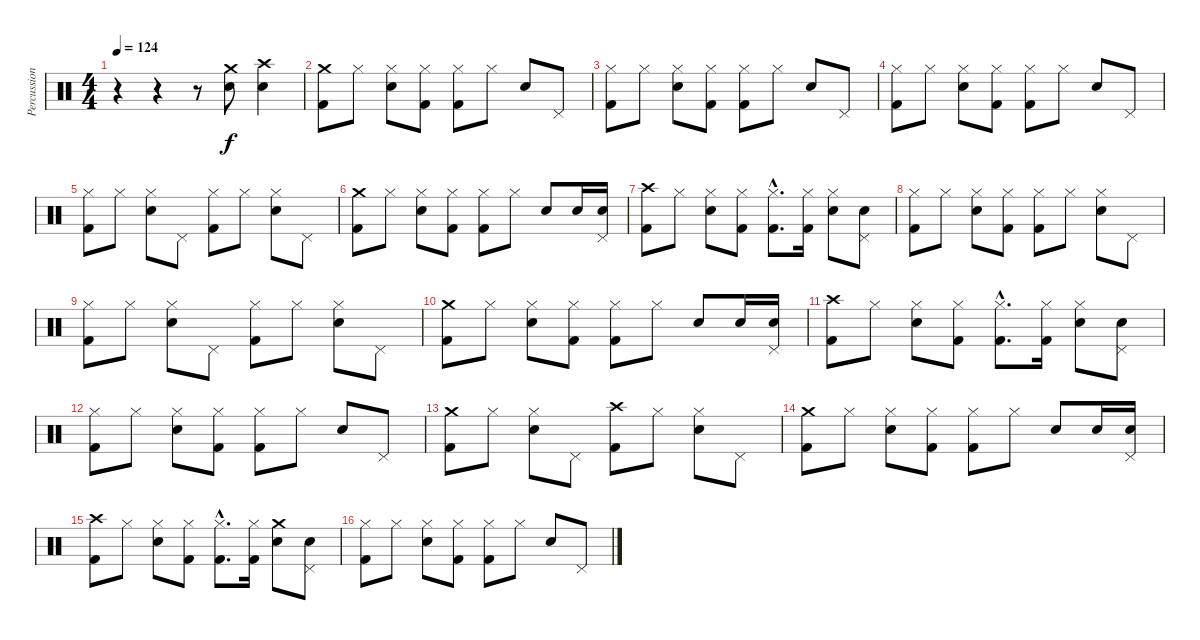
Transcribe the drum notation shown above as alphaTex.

\track ("Percussions" "Percussion") {instrument percussion}
\staff {score}
\articulation defaults
\ts (4 4)
\tempo 124
\clef neutral
\ks c
r.4{dy f} r.4 r.8 ("Crash medium (hit)" "Electric Snare (hit)").8 ("Crash high (hit)" "Electric Snare (hit)").4 |
("Crash medium (hit)" "Kick (hit) 2").8 "Hi-Hat (closed)".8 ("Hi-Hat (closed)" "Electric Snare (hit)").8 ("Hi-Hat (closed)" "Kick (hit) 2").8 ("Hi-Hat (closed)" "Kick (hit) 2").8 "Hi-Hat (closed)".8 "Electric Snare (hit)".8 "Pedal Hi-Hat (hit)".8 |
("Hi-Hat (closed)" "Kick (hit) 2").8 "Hi-Hat (closed)".8 ("Hi-Hat (closed)" "Electric Snare (hit)").8 ("Hi-Hat (closed)" "Kick (hit) 2").8 ("Hi-Hat (closed)" "Kick (hit) 2").8 "Hi-Hat (closed)".8 "Electric Snare (hit)".8 "Pedal Hi-Hat (hit)".8 |
("Hi-Hat (closed)" "Kick (hit) 2").8 "Hi-Hat (closed)".8 ("Hi-Hat (closed)" "Electric Snare (hit)").8 ("Hi-Hat (closed)" "Kick (hit) 2").8 ("Hi-Hat (closed)" "Kick (hit) 2").8 "Hi-Hat (closed)".8 "Electric Snare (hit)".8 "Pedal Hi-Hat (hit)".8 |
("Hi-Hat (closed)" "Kick (hit) 2").8 "Hi-Hat (closed)".8 ("Hi-Hat (closed)" "Electric Snare (hit)").8 "Pedal Hi-Hat (hit)".8 ("Hi-Hat (closed)" "Kick (hit) 2").8 "Hi-Hat (closed)".8 ("Hi-Hat (closed)" "Electric Snare (hit)").8 "Pedal Hi-Hat (hit)".8 |
("Crash medium (hit)" "Kick (hit) 2").8 "Hi-Hat (closed)".8 ("Hi-Hat (closed)" "Electric Snare (hit)").8 ("Hi-Hat (closed)" "Kick (hit) 2").8 ("Hi-Hat (closed)" "Kick (hit) 2").8 "Hi-Hat (closed)".8 "Electric Snare (hit)".8 "Electric Snare (hit)".16 ("Pedal Hi-Hat (hit)" "Electric Snare (hit)").16 |
("Crash high (hit)" "Kick (hit) 2").8 "Hi-Hat (closed)".8 ("Hi-Hat (closed)" "Electric Snare (hit)").8 ("Hi-Hat (closed)" "Kick (hit) 2").8 ("Hi-Hat (closed)"{hac} "Kick (hit) 2"{hac}).8{d} ("Hi-Hat (closed)" "Kick (hit) 2").16 ("Hi-Hat (closed)" "Electric Snare (hit)").8 ("Pedal Hi-Hat (hit)" "Electric Snare (hit)").8 |
("Hi-Hat (closed)" "Kick (hit) 2").8 "Hi-Hat (closed)".8 ("Hi-Hat (closed)" "Electric Snare (hit)").8 ("Hi-Hat (closed)" "Kick (hit) 2").8 ("Hi-Hat (closed)" "Kick (hit) 2").8 "Hi-Hat (closed)".8 ("Hi-Hat (closed)" "Electric Snare (hit)").8 "Pedal Hi-Hat (hit)".8 |
("Hi-Hat (closed)" "Kick (hit) 2").8 "Hi-Hat (closed)".8 ("Hi-Hat (closed)" "Electric Snare (hit)").8 "Pedal Hi-Hat (hit)".8 ("Hi-Hat (closed)" "Kick (hit) 2").8 "Hi-Hat (closed)".8 ("Hi-Hat (closed)" "Electric Snare (hit)").8 "Pedal Hi-Hat (hit)".8 |
("Crash medium (hit)" "Kick (hit) 2").8 "Hi-Hat (closed)".8 ("Hi-Hat (closed)" "Electric Snare (hit)").8 ("Hi-Hat (closed)" "Kick (hit) 2").8 ("Hi-Hat (closed)" "Kick (hit) 2").8 "Hi-Hat (closed)".8 "Electric Snare (hit)".8 "Electric Snare (hit)".16 ("Pedal Hi-Hat (hit)" "Electric Snare (hit)").16 |
("Crash high (hit)" "Kick (hit) 2").8 "Hi-Hat (closed)".8 ("Hi-Hat (closed)" "Electric Snare (hit)").8 ("Hi-Hat (closed)" "Kick (hit) 2").8 ("Hi-Hat (closed)"{hac} "Kick (hit) 2"{hac}).8{d} ("Hi-Hat (closed)" "Kick (hit) 2").16 ("Hi-Hat (closed)" "Electric Snare (hit)").8 ("Pedal Hi-Hat (hit)" "Electric Snare (hit)").8 |
("Hi-Hat (closed)" "Kick (hit) 2").8 "Hi-Hat (closed)".8 ("Hi-Hat (closed)" "Electric Snare (hit)").8 ("Hi-Hat (closed)" "Kick (hit) 2").8 ("Hi-Hat (closed)" "Kick (hit) 2").8 "Hi-Hat (closed)".8 "Electric Snare (hit)".8 "Pedal Hi-Hat (hit)".8 |
("Crash medium (hit)" "Kick (hit) 2").8 "Hi-Hat (closed)".8 ("Hi-Hat (closed)" "Electric Snare (hit)").8 "Pedal Hi-Hat (hit)".8 ("Crash high (hit)" "Kick (hit) 2").8 "Hi-Hat (closed)".8 ("Hi-Hat (closed)" "Electric Snare (hit)").8 "Pedal Hi-Hat (hit)".8 |
("Crash medium (hit)" "Kick (hit) 2").8 "Hi-Hat (closed)".8 ("Hi-Hat (closed)" "Electric Snare (hit)").8 ("Hi-Hat (closed)" "Kick (hit) 2").8 ("Hi-Hat (closed)" "Kick (hit) 2").8 "Hi-Hat (closed)".8 "Electric Snare (hit)".8 "Electric Snare (hit)".16 ("Pedal Hi-Hat (hit)" "Electric Snare (hit)").16 |
("Crash high (hit)" "Kick (hit) 2").8 "Hi-Hat (closed)".8 ("Hi-Hat (closed)" "Electric Snare (hit)").8 ("Hi-Hat (closed)" "Kick (hit) 2").8 ("Hi-Hat (closed)"{hac} "Kick (hit) 2"{hac}).8{d} ("Hi-Hat (closed)" "Kick (hit) 2").16 ("Crash medium (hit)" "Electric Snare (hit)").8 ("Pedal Hi-Hat (hit)" "Electric Snare (hit)").8 |
("Hi-Hat (closed)" "Kick (hit) 2").8 "Hi-Hat (closed)".8 ("Hi-Hat (closed)" "Electric Snare (hit)").8 ("Hi-Hat (closed)" "Kick (hit) 2").8 ("Hi-Hat (closed)" "Kick (hit) 2").8 "Hi-Hat (closed)".8 "Electric Snare (hit)".8 "Pedal Hi-Hat (hit)".8
